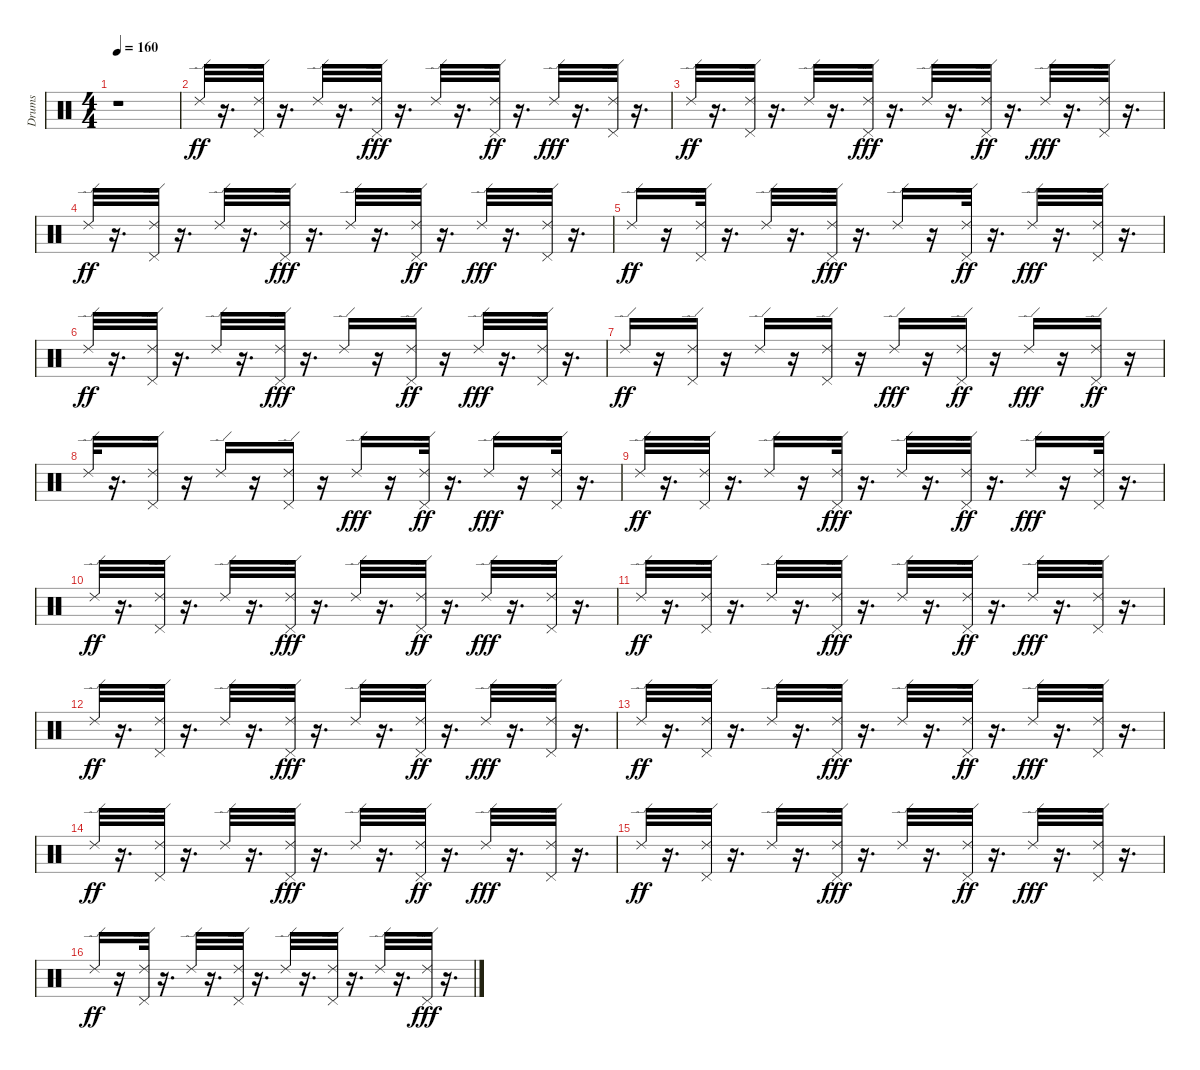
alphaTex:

\track ("Drums" "Drums") {instrument percussion}
\staff {score}
\articulation defaults
\ts (4 4)
\tempo 160
\clef neutral
\ks c
r.1{dy ff} |
"Ride (edge) 2".32 r.16{d} ("Pedal Hi-Hat (hit)" "Ride (edge) 2").32 r.16{d} "Ride (edge) 2".32 r.16{d} ("Pedal Hi-Hat (hit)" "Ride (edge) 2").32{dy fff} r.16{d} "Ride (edge) 2".32 r.16{d} ("Pedal Hi-Hat (hit)" "Ride (edge) 2").32{dy ff} r.16{d} "Ride (edge) 2".32{dy fff} r.16{d} ("Pedal Hi-Hat (hit)" "Ride (edge) 2").32 r.16{d} |
"Ride (edge) 2".32{dy ff} r.16{d} ("Pedal Hi-Hat (hit)" "Ride (edge) 2").32 r.16{d} "Ride (edge) 2".32 r.16{d} ("Pedal Hi-Hat (hit)" "Ride (edge) 2").32{dy fff} r.16{d} "Ride (edge) 2".32 r.16{d} ("Pedal Hi-Hat (hit)" "Ride (edge) 2").32{dy ff} r.16{d} "Ride (edge) 2".32{dy fff} r.16{d} ("Pedal Hi-Hat (hit)" "Ride (edge) 2").32 r.16{d} |
"Ride (edge) 2".32{dy ff} r.16{d} ("Pedal Hi-Hat (hit)" "Ride (edge) 2").32 r.16{d} "Ride (edge) 2".32 r.16{d} ("Pedal Hi-Hat (hit)" "Ride (edge) 2").32{dy fff} r.16{d} "Ride (edge) 2".32 r.16{d} ("Pedal Hi-Hat (hit)" "Ride (edge) 2").32{dy ff} r.16{d} "Ride (edge) 2".32{dy fff} r.16{d} ("Pedal Hi-Hat (hit)" "Ride (edge) 2").32 r.16{d} |
"Ride (edge) 2".16{dy ff} r.16 ("Pedal Hi-Hat (hit)" "Ride (edge) 2").32 r.16{d} "Ride (edge) 2".32 r.16{d} ("Pedal Hi-Hat (hit)" "Ride (edge) 2").32{dy fff} r.16{d} "Ride (edge) 2".16 r.16 ("Pedal Hi-Hat (hit)" "Ride (edge) 2").32{dy ff} r.16{d} "Ride (edge) 2".32{dy fff} r.16{d} ("Pedal Hi-Hat (hit)" "Ride (edge) 2").32 r.16{d} |
"Ride (edge) 2".32{dy ff} r.16{d} ("Pedal Hi-Hat (hit)" "Ride (edge) 2").32 r.16{d} "Ride (edge) 2".32 r.16{d} ("Pedal Hi-Hat (hit)" "Ride (edge) 2").32{dy fff} r.16{d} "Ride (edge) 2".16 r.16 ("Ride (edge) 2" "Pedal Hi-Hat (hit)").16{dy ff} r.16 "Ride (edge) 2".32{dy fff} r.16{d} ("Pedal Hi-Hat (hit)" "Ride (edge) 2").32 r.16{d} |
"Ride (edge) 2".16{dy ff} r.16 ("Ride (edge) 2" "Pedal Hi-Hat (hit)").16 r.16 "Ride (edge) 2".16 r.16 ("Ride (edge) 2" "Pedal Hi-Hat (hit)").16 r.16 "Ride (edge) 2".16{dy fff} r.16 ("Ride (edge) 2" "Pedal Hi-Hat (hit)").16{dy ff} r.16 "Ride (edge) 2".16{dy fff} r.16 ("Ride (edge) 2" "Pedal Hi-Hat (hit)").16{dy ff} r.16 |
"Ride (edge) 2".32 r.16{d} ("Ride (edge) 2" "Pedal Hi-Hat (hit)").16 r.16 "Ride (edge) 2".16 r.16 ("Ride (edge) 2" "Pedal Hi-Hat (hit)").16 r.16 "Ride (edge) 2".16{dy fff} r.16 ("Pedal Hi-Hat (hit)" "Ride (edge) 2").32{dy ff} r.16{d} "Ride (edge) 2".16{dy fff} r.16 ("Pedal Hi-Hat (hit)" "Ride (edge) 2").32 r.16{d} |
"Ride (edge) 2".32{dy ff} r.16{d} ("Pedal Hi-Hat (hit)" "Ride (edge) 2").32 r.16{d} "Ride (edge) 2".16 r.16 ("Pedal Hi-Hat (hit)" "Ride (edge) 2").32{dy fff} r.16{d} "Ride (edge) 2".32 r.16{d} ("Pedal Hi-Hat (hit)" "Ride (edge) 2").32{dy ff} r.16{d} "Ride (edge) 2".16{dy fff} r.16 ("Pedal Hi-Hat (hit)" "Ride (edge) 2").32 r.16{d} |
"Ride (edge) 2".32{dy ff} r.16{d} ("Pedal Hi-Hat (hit)" "Ride (edge) 2").32 r.16{d} "Ride (edge) 2".32 r.16{d} ("Pedal Hi-Hat (hit)" "Ride (edge) 2").32{dy fff} r.16{d} "Ride (edge) 2".32 r.16{d} ("Pedal Hi-Hat (hit)" "Ride (edge) 2").32{dy ff} r.16{d} "Ride (edge) 2".32{dy fff} r.16{d} ("Pedal Hi-Hat (hit)" "Ride (edge) 2").32 r.16{d} |
"Ride (edge) 2".32{dy ff} r.16{d} ("Pedal Hi-Hat (hit)" "Ride (edge) 2").32 r.16{d} "Ride (edge) 2".32 r.16{d} ("Pedal Hi-Hat (hit)" "Ride (edge) 2").32{dy fff} r.16{d} "Ride (edge) 2".32 r.16{d} ("Pedal Hi-Hat (hit)" "Ride (edge) 2").32{dy ff} r.16{d} "Ride (edge) 2".32{dy fff} r.16{d} ("Pedal Hi-Hat (hit)" "Ride (edge) 2").32 r.16{d} |
"Ride (edge) 2".32{dy ff} r.16{d} ("Pedal Hi-Hat (hit)" "Ride (edge) 2").32 r.16{d} "Ride (edge) 2".32 r.16{d} ("Pedal Hi-Hat (hit)" "Ride (edge) 2").32{dy fff} r.16{d} "Ride (edge) 2".32 r.16{d} ("Pedal Hi-Hat (hit)" "Ride (edge) 2").32{dy ff} r.16{d} "Ride (edge) 2".32{dy fff} r.16{d} ("Pedal Hi-Hat (hit)" "Ride (edge) 2").32 r.16{d} |
"Ride (edge) 2".32{dy ff} r.16{d} ("Pedal Hi-Hat (hit)" "Ride (edge) 2").32 r.16{d} "Ride (edge) 2".32 r.16{d} ("Pedal Hi-Hat (hit)" "Ride (edge) 2").32{dy fff} r.16{d} "Ride (edge) 2".32 r.16{d} ("Pedal Hi-Hat (hit)" "Ride (edge) 2").32{dy ff} r.16{d} "Ride (edge) 2".32{dy fff} r.16{d} ("Pedal Hi-Hat (hit)" "Ride (edge) 2").32 r.16{d} |
"Ride (edge) 2".32{dy ff} r.16{d} ("Pedal Hi-Hat (hit)" "Ride (edge) 2").32 r.16{d} "Ride (edge) 2".32 r.16{d} ("Pedal Hi-Hat (hit)" "Ride (edge) 2").32{dy fff} r.16{d} "Ride (edge) 2".32 r.16{d} ("Pedal Hi-Hat (hit)" "Ride (edge) 2").32{dy ff} r.16{d} "Ride (edge) 2".32{dy fff} r.16{d} ("Pedal Hi-Hat (hit)" "Ride (edge) 2").32 r.16{d} |
"Ride (edge) 2".32{dy ff} r.16{d} ("Pedal Hi-Hat (hit)" "Ride (edge) 2").32 r.16{d} "Ride (edge) 2".32 r.16{d} ("Pedal Hi-Hat (hit)" "Ride (edge) 2").32{dy fff} r.16{d} "Ride (edge) 2".32 r.16{d} ("Pedal Hi-Hat (hit)" "Ride (edge) 2").32{dy ff} r.16{d} "Ride (edge) 2".32{dy fff} r.16{d} ("Pedal Hi-Hat (hit)" "Ride (edge) 2").32 r.16{d} |
"Ride (edge) 2".16{dy ff} r.16 ("Pedal Hi-Hat (hit)" "Ride (edge) 2").32 r.16{d} "Ride (edge) 2".32 r.16{d} ("Pedal Hi-Hat (hit)" "Ride (edge) 2").32 r.16{d} "Ride (edge) 2".32 r.16{d} ("Pedal Hi-Hat (hit)" "Ride (edge) 2").32 r.16{d} "Ride (edge) 2".32 r.16{d} ("Pedal Hi-Hat (hit)" "Ride (edge) 2").32{dy fff} r.16{d}
